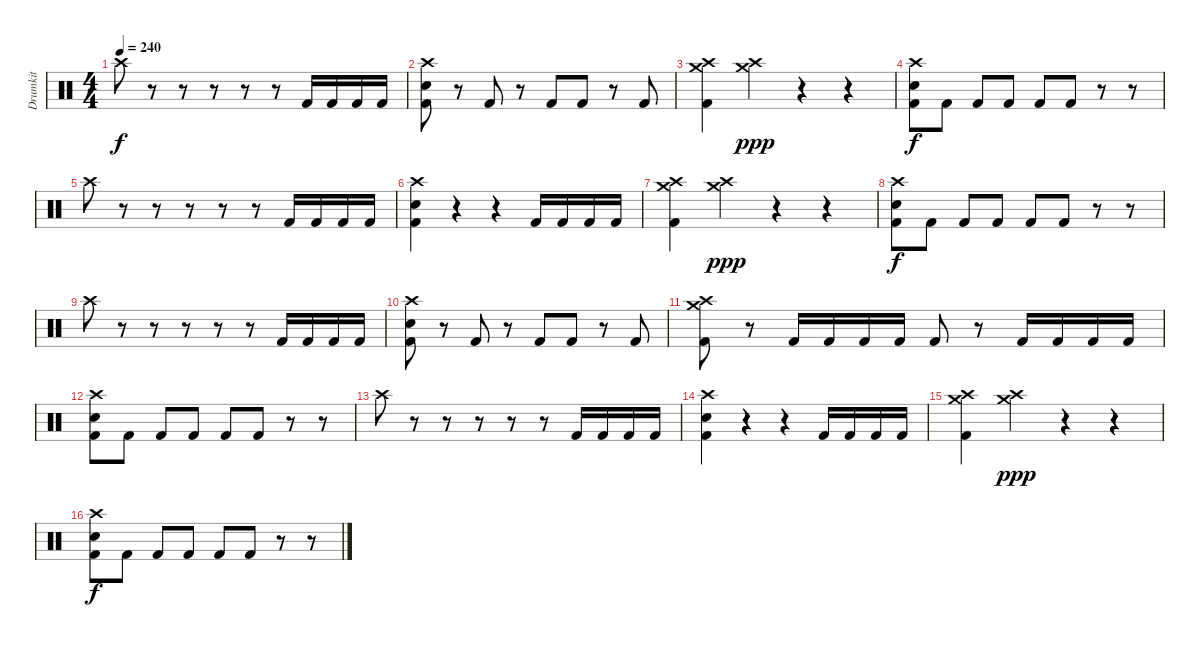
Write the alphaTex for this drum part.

\track ("Drumkit" "Drumkit") {instrument percussion}
\staff {score}
\articulation defaults
\ts (4 4)
\tempo 240
\clef neutral
\ks c "Crash high (hit)".8{dy f}
r.8 r.8 r.8 r.8 r.8 "Kick (hit) 2".16 "Kick (hit) 2".16 "Kick (hit) 2".16 "Kick (hit) 2".16 |
("Crash high (hit)" "Electric Snare (hit)" "Kick (hit) 2").8 r.8 "Kick (hit) 2".8 r.8 "Kick (hit) 2".8 "Kick (hit) 2".8 r.8 "Kick (hit) 2".8 |
("Crash medium (hit)" "Crash high (hit)" "Kick (hit) 2").4 ("Crash medium (hit)" "Crash high (hit)").4{dy ppp} r.4 r.4 |
("Crash high (hit)" "Electric Snare (hit)" "Kick (hit) 2").8{dy f} "Kick (hit) 2".8 "Kick (hit) 2".8 "Kick (hit) 2".8 "Kick (hit) 2".8 "Kick (hit) 2".8 r.8 r.8 |
"Crash high (hit)".8 r.8 r.8 r.8 r.8 r.8 "Kick (hit) 2".16 "Kick (hit) 2".16 "Kick (hit) 2".16 "Kick (hit) 2".16 |
("Crash high (hit)" "Electric Snare (hit)" "Kick (hit) 2").4 r.4 r.4 "Kick (hit) 2".16 "Kick (hit) 2".16 "Kick (hit) 2".16 "Kick (hit) 2".16 |
("Crash medium (hit)" "Crash high (hit)" "Kick (hit) 2").4 ("Crash medium (hit)" "Crash high (hit)").4{dy ppp} r.4 r.4 |
("Crash high (hit)" "Electric Snare (hit)" "Kick (hit) 2").8{dy f} "Kick (hit) 2".8 "Kick (hit) 2".8 "Kick (hit) 2".8 "Kick (hit) 2".8 "Kick (hit) 2".8 r.8 r.8 |
"Crash high (hit)".8 r.8 r.8 r.8 r.8 r.8 "Kick (hit) 2".16 "Kick (hit) 2".16 "Kick (hit) 2".16 "Kick (hit) 2".16 |
("Crash high (hit)" "Electric Snare (hit)" "Kick (hit) 2").8 r.8 "Kick (hit) 2".8 r.8 "Kick (hit) 2".8 "Kick (hit) 2".8 r.8 "Kick (hit) 2".8 |
("Crash medium (hit)" "Crash high (hit)" "Kick (hit) 2").8 r.8 "Kick (hit) 2".16 "Kick (hit) 2".16 "Kick (hit) 2".16 "Kick (hit) 2".16 "Kick (hit) 2".8 r.8 "Kick (hit) 2".16 "Kick (hit) 2".16 "Kick (hit) 2".16 "Kick (hit) 2".16 |
("Crash high (hit)" "Electric Snare (hit)" "Kick (hit) 2").8 "Kick (hit) 2".8 "Kick (hit) 2".8 "Kick (hit) 2".8 "Kick (hit) 2".8 "Kick (hit) 2".8 r.8 r.8 |
"Crash high (hit)".8 r.8 r.8 r.8 r.8 r.8 "Kick (hit) 2".16 "Kick (hit) 2".16 "Kick (hit) 2".16 "Kick (hit) 2".16 |
("Crash high (hit)" "Electric Snare (hit)" "Kick (hit) 2").4 r.4 r.4 "Kick (hit) 2".16 "Kick (hit) 2".16 "Kick (hit) 2".16 "Kick (hit) 2".16 |
("Crash medium (hit)" "Crash high (hit)" "Kick (hit) 2").4 ("Crash medium (hit)" "Crash high (hit)").4{dy ppp} r.4 r.4 |
("Crash high (hit)" "Electric Snare (hit)" "Kick (hit) 2").8{dy f} "Kick (hit) 2".8 "Kick (hit) 2".8 "Kick (hit) 2".8 "Kick (hit) 2".8 "Kick (hit) 2".8 r.8 r.8
